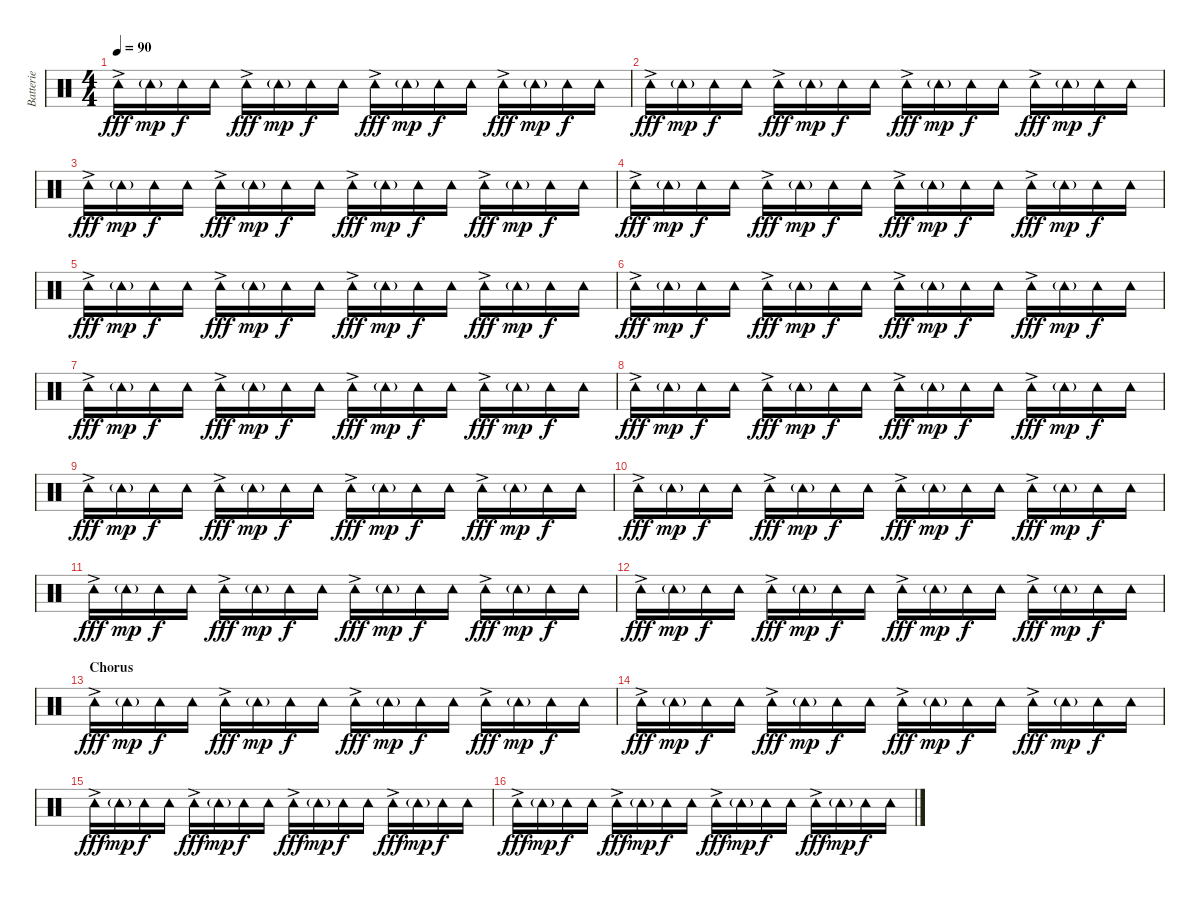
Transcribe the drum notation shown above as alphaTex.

\track ("Batterie" "Batterie") {instrument percussion}
\staff {score}
\articulation defaults
\ts (4 4)
\tempo 90
\clef neutral
\ks c "Tambourine (hit)"{ac}.16{dy fff} "Tambourine (hit)"{g}.16{dy mp} "Tambourine (hit)".16{dy f} "Tambourine (hit)".16 "Tambourine (hit)"{ac}.16{dy fff} "Tambourine (hit)"{g}.16{dy mp} "Tambourine (hit)".16{dy f} "Tambourine (hit)".16 "Tambourine (hit)"{ac}.16{dy fff} "Tambourine (hit)"{g}.16{dy mp} "Tambourine (hit)".16{dy f} "Tambourine (hit)".16 "Tambourine (hit)"{ac}.16{dy fff} "Tambourine (hit)"{g}.16{dy mp} "Tambourine (hit)".16{dy f} "Tambourine (hit)".16
|
"Tambourine (hit)"{ac}.16{dy fff} "Tambourine (hit)"{g}.16{dy mp} "Tambourine (hit)".16{dy f} "Tambourine (hit)".16 "Tambourine (hit)"{ac}.16{dy fff} "Tambourine (hit)"{g}.16{dy mp} "Tambourine (hit)".16{dy f} "Tambourine (hit)".16 "Tambourine (hit)"{ac}.16{dy fff} "Tambourine (hit)"{g}.16{dy mp} "Tambourine (hit)".16{dy f} "Tambourine (hit)".16 "Tambourine (hit)"{ac}.16{dy fff} "Tambourine (hit)"{g}.16{dy mp} "Tambourine (hit)".16{dy f} "Tambourine (hit)".16 |
"Tambourine (hit)"{ac}.16{dy fff} "Tambourine (hit)"{g}.16{dy mp} "Tambourine (hit)".16{dy f} "Tambourine (hit)".16 "Tambourine (hit)"{ac}.16{dy fff} "Tambourine (hit)"{g}.16{dy mp} "Tambourine (hit)".16{dy f} "Tambourine (hit)".16 "Tambourine (hit)"{ac}.16{dy fff} "Tambourine (hit)"{g}.16{dy mp} "Tambourine (hit)".16{dy f} "Tambourine (hit)".16 "Tambourine (hit)"{ac}.16{dy fff} "Tambourine (hit)"{g}.16{dy mp} "Tambourine (hit)".16{dy f} "Tambourine (hit)".16 |
"Tambourine (hit)"{ac}.16{dy fff} "Tambourine (hit)"{g}.16{dy mp} "Tambourine (hit)".16{dy f} "Tambourine (hit)".16 "Tambourine (hit)"{ac}.16{dy fff} "Tambourine (hit)"{g}.16{dy mp} "Tambourine (hit)".16{dy f} "Tambourine (hit)".16 "Tambourine (hit)"{ac}.16{dy fff} "Tambourine (hit)"{g}.16{dy mp} "Tambourine (hit)".16{dy f} "Tambourine (hit)".16 "Tambourine (hit)"{ac}.16{dy fff} "Tambourine (hit)"{g}.16{dy mp} "Tambourine (hit)".16{dy f} "Tambourine (hit)".16 |
"Tambourine (hit)"{ac}.16{dy fff} "Tambourine (hit)"{g}.16{dy mp} "Tambourine (hit)".16{dy f} "Tambourine (hit)".16 "Tambourine (hit)"{ac}.16{dy fff} "Tambourine (hit)"{g}.16{dy mp} "Tambourine (hit)".16{dy f} "Tambourine (hit)".16 "Tambourine (hit)"{ac}.16{dy fff} "Tambourine (hit)"{g}.16{dy mp} "Tambourine (hit)".16{dy f} "Tambourine (hit)".16 "Tambourine (hit)"{ac}.16{dy fff} "Tambourine (hit)"{g}.16{dy mp} "Tambourine (hit)".16{dy f} "Tambourine (hit)".16 |
"Tambourine (hit)"{ac}.16{dy fff} "Tambourine (hit)"{g}.16{dy mp} "Tambourine (hit)".16{dy f} "Tambourine (hit)".16 "Tambourine (hit)"{ac}.16{dy fff} "Tambourine (hit)"{g}.16{dy mp} "Tambourine (hit)".16{dy f} "Tambourine (hit)".16 "Tambourine (hit)"{ac}.16{dy fff} "Tambourine (hit)"{g}.16{dy mp} "Tambourine (hit)".16{dy f} "Tambourine (hit)".16 "Tambourine (hit)"{ac}.16{dy fff} "Tambourine (hit)"{g}.16{dy mp} "Tambourine (hit)".16{dy f} "Tambourine (hit)".16 |
"Tambourine (hit)"{ac}.16{dy fff} "Tambourine (hit)"{g}.16{dy mp} "Tambourine (hit)".16{dy f} "Tambourine (hit)".16 "Tambourine (hit)"{ac}.16{dy fff} "Tambourine (hit)"{g}.16{dy mp} "Tambourine (hit)".16{dy f} "Tambourine (hit)".16 "Tambourine (hit)"{ac}.16{dy fff} "Tambourine (hit)"{g}.16{dy mp} "Tambourine (hit)".16{dy f} "Tambourine (hit)".16 "Tambourine (hit)"{ac}.16{dy fff} "Tambourine (hit)"{g}.16{dy mp} "Tambourine (hit)".16{dy f} "Tambourine (hit)".16 |
"Tambourine (hit)"{ac}.16{dy fff} "Tambourine (hit)"{g}.16{dy mp} "Tambourine (hit)".16{dy f} "Tambourine (hit)".16 "Tambourine (hit)"{ac}.16{dy fff} "Tambourine (hit)"{g}.16{dy mp} "Tambourine (hit)".16{dy f} "Tambourine (hit)".16 "Tambourine (hit)"{ac}.16{dy fff} "Tambourine (hit)"{g}.16{dy mp} "Tambourine (hit)".16{dy f} "Tambourine (hit)".16 "Tambourine (hit)"{ac}.16{dy fff} "Tambourine (hit)"{g}.16{dy mp} "Tambourine (hit)".16{dy f} "Tambourine (hit)".16 |
"Tambourine (hit)"{ac}.16{dy fff} "Tambourine (hit)"{g}.16{dy mp} "Tambourine (hit)".16{dy f} "Tambourine (hit)".16 "Tambourine (hit)"{ac}.16{dy fff} "Tambourine (hit)"{g}.16{dy mp} "Tambourine (hit)".16{dy f} "Tambourine (hit)".16 "Tambourine (hit)"{ac}.16{dy fff} "Tambourine (hit)"{g}.16{dy mp} "Tambourine (hit)".16{dy f} "Tambourine (hit)".16 "Tambourine (hit)"{ac}.16{dy fff} "Tambourine (hit)"{g}.16{dy mp} "Tambourine (hit)".16{dy f} "Tambourine (hit)".16 |
"Tambourine (hit)"{ac}.16{dy fff} "Tambourine (hit)"{g}.16{dy mp} "Tambourine (hit)".16{dy f} "Tambourine (hit)".16 "Tambourine (hit)"{ac}.16{dy fff} "Tambourine (hit)"{g}.16{dy mp} "Tambourine (hit)".16{dy f} "Tambourine (hit)".16 "Tambourine (hit)"{ac}.16{dy fff} "Tambourine (hit)"{g}.16{dy mp} "Tambourine (hit)".16{dy f} "Tambourine (hit)".16 "Tambourine (hit)"{ac}.16{dy fff} "Tambourine (hit)"{g}.16{dy mp} "Tambourine (hit)".16{dy f} "Tambourine (hit)".16 |
"Tambourine (hit)"{ac}.16{dy fff} "Tambourine (hit)"{g}.16{dy mp} "Tambourine (hit)".16{dy f} "Tambourine (hit)".16 "Tambourine (hit)"{ac}.16{dy fff} "Tambourine (hit)"{g}.16{dy mp} "Tambourine (hit)".16{dy f} "Tambourine (hit)".16 "Tambourine (hit)"{ac}.16{dy fff} "Tambourine (hit)"{g}.16{dy mp} "Tambourine (hit)".16{dy f} "Tambourine (hit)".16 "Tambourine (hit)"{ac}.16{dy fff} "Tambourine (hit)"{g}.16{dy mp} "Tambourine (hit)".16{dy f} "Tambourine (hit)".16 |
"Tambourine (hit)"{ac}.16{dy fff} "Tambourine (hit)"{g}.16{dy mp} "Tambourine (hit)".16{dy f} "Tambourine (hit)".16 "Tambourine (hit)"{ac}.16{dy fff} "Tambourine (hit)"{g}.16{dy mp} "Tambourine (hit)".16{dy f} "Tambourine (hit)".16 "Tambourine (hit)"{ac}.16{dy fff} "Tambourine (hit)"{g}.16{dy mp} "Tambourine (hit)".16{dy f} "Tambourine (hit)".16 "Tambourine (hit)"{ac}.16{dy fff} "Tambourine (hit)"{g}.16{dy mp} "Tambourine (hit)".16{dy f} "Tambourine (hit)".16 |
\section ("" "Chorus")
"Tambourine (hit)"{ac}.16{dy fff} "Tambourine (hit)"{g}.16{dy mp} "Tambourine (hit)".16{dy f} "Tambourine (hit)".16 "Tambourine (hit)"{ac}.16{dy fff} "Tambourine (hit)"{g}.16{dy mp} "Tambourine (hit)".16{dy f} "Tambourine (hit)".16 "Tambourine (hit)"{ac}.16{dy fff} "Tambourine (hit)"{g}.16{dy mp} "Tambourine (hit)".16{dy f} "Tambourine (hit)".16 "Tambourine (hit)"{ac}.16{dy fff} "Tambourine (hit)"{g}.16{dy mp} "Tambourine (hit)".16{dy f} "Tambourine (hit)".16 |
"Tambourine (hit)"{ac}.16{dy fff} "Tambourine (hit)"{g}.16{dy mp} "Tambourine (hit)".16{dy f} "Tambourine (hit)".16 "Tambourine (hit)"{ac}.16{dy fff} "Tambourine (hit)"{g}.16{dy mp} "Tambourine (hit)".16{dy f} "Tambourine (hit)".16 "Tambourine (hit)"{ac}.16{dy fff} "Tambourine (hit)"{g}.16{dy mp} "Tambourine (hit)".16{dy f} "Tambourine (hit)".16 "Tambourine (hit)"{ac}.16{dy fff} "Tambourine (hit)"{g}.16{dy mp} "Tambourine (hit)".16{dy f} "Tambourine (hit)".16 |
"Tambourine (hit)"{ac}.16{dy fff} "Tambourine (hit)"{g}.16{dy mp} "Tambourine (hit)".16{dy f} "Tambourine (hit)".16 "Tambourine (hit)"{ac}.16{dy fff} "Tambourine (hit)"{g}.16{dy mp} "Tambourine (hit)".16{dy f} "Tambourine (hit)".16 "Tambourine (hit)"{ac}.16{dy fff} "Tambourine (hit)"{g}.16{dy mp} "Tambourine (hit)".16{dy f} "Tambourine (hit)".16 "Tambourine (hit)"{ac}.16{dy fff} "Tambourine (hit)"{g}.16{dy mp} "Tambourine (hit)".16{dy f} "Tambourine (hit)".16 |
"Tambourine (hit)"{ac}.16{dy fff} "Tambourine (hit)"{g}.16{dy mp} "Tambourine (hit)".16{dy f} "Tambourine (hit)".16 "Tambourine (hit)"{ac}.16{dy fff} "Tambourine (hit)"{g}.16{dy mp} "Tambourine (hit)".16{dy f} "Tambourine (hit)".16 "Tambourine (hit)"{ac}.16{dy fff} "Tambourine (hit)"{g}.16{dy mp} "Tambourine (hit)".16{dy f} "Tambourine (hit)".16 "Tambourine (hit)"{ac}.16{dy fff} "Tambourine (hit)"{g}.16{dy mp} "Tambourine (hit)".16{dy f} "Tambourine (hit)".16
